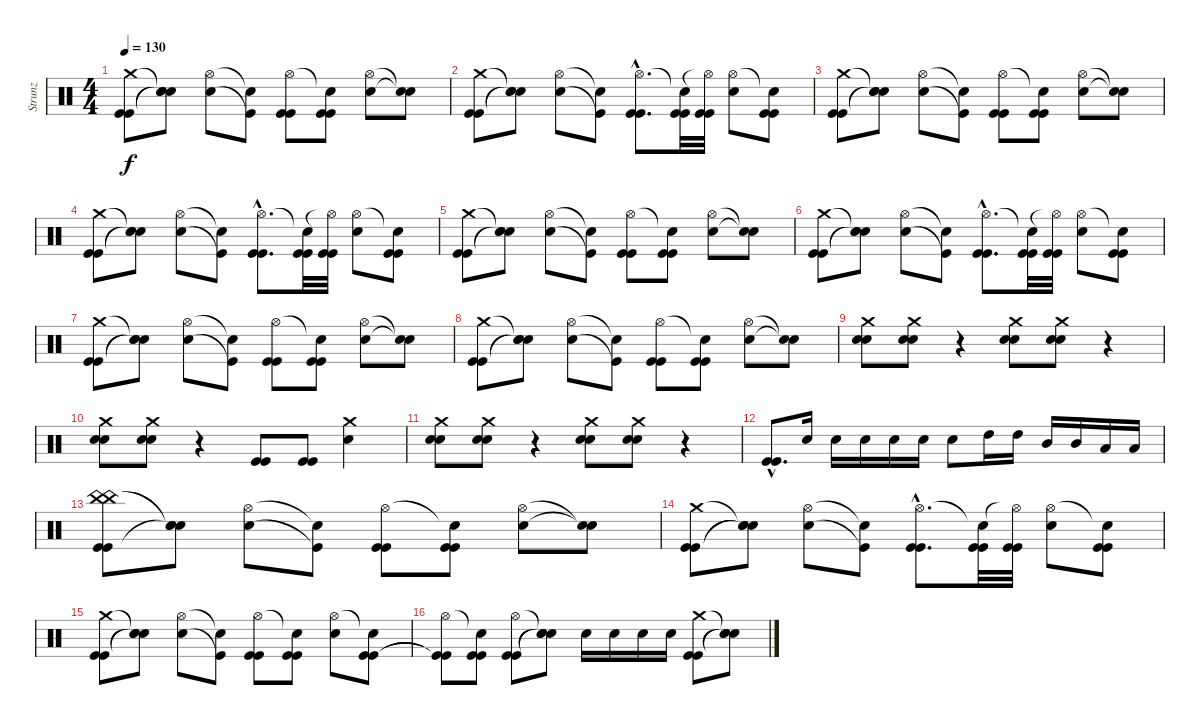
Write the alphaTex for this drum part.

\track ("Strunz" "Strunz") {instrument percussion}
\staff {score}
\articulation defaults
\ts (4 4)
\tempo 130
\clef neutral
\ks c
("Crash medium (hit)" "Kick (hit)" "Kick (hit)").8{dy f} ("Snare (hit)"{t} "Electric Snare (hit)"{t} "Snare (hit)"{t}).8 ("Hi-Hat (open)" "Electric Snare (hit)").8 ("Snare (hit)"{t} "Kick (hit)"{t}).8 ("Hi-Hat (open)" "Kick (hit)" "Kick (hit)").8 ("Snare (hit)"{t} "Kick (hit)" "Kick (hit)").8 ("Hi-Hat (open)" "Electric Snare (hit)").8 ("Snare (hit)"{t} "Snare (hit)"{t}).8 |
("Crash medium (hit)" "Kick (hit)" "Kick (hit)").8 ("Snare (hit)"{t} "Electric Snare (hit)"{t} "Snare (hit)"{t}).8 ("Hi-Hat (open)" "Electric Snare (hit)").8 ("Snare (hit)"{t} "Kick (hit)"{t}).8 ("Hi-Hat (open)"{hac} "Kick (hit)"{hac} "Kick (hit)"{hac}).8{d} ("Snare (hit)"{t} "Kick (hit)" "Kick (hit)").32 ("Hi-Hat (open)"{t} "Kick (hit)" "Kick (hit)").32 ("Hi-Hat (open)" "Electric Snare (hit)").8 ("Snare (hit)"{t} "Kick (hit)" "Kick (hit)").8 |
("Crash medium (hit)" "Kick (hit)" "Kick (hit)").8 ("Snare (hit)"{t} "Electric Snare (hit)"{t} "Snare (hit)"{t}).8 ("Hi-Hat (open)" "Electric Snare (hit)").8 ("Snare (hit)"{t} "Kick (hit)"{t}).8 ("Hi-Hat (open)" "Kick (hit)" "Kick (hit)").8 ("Snare (hit)"{t} "Kick (hit)" "Kick (hit)").8 ("Hi-Hat (open)" "Electric Snare (hit)").8 ("Snare (hit)"{t} "Snare (hit)"{t}).8 |
("Crash medium (hit)" "Kick (hit)" "Kick (hit)").8 ("Snare (hit)"{t} "Electric Snare (hit)"{t} "Snare (hit)"{t}).8 ("Hi-Hat (open)" "Electric Snare (hit)").8 ("Snare (hit)"{t} "Kick (hit)"{t}).8 ("Hi-Hat (open)"{hac} "Kick (hit)"{hac} "Kick (hit)"{hac}).8{d} ("Snare (hit)"{t} "Kick (hit)" "Kick (hit)").32 ("Hi-Hat (open)"{t} "Kick (hit)" "Kick (hit)").32 ("Hi-Hat (open)" "Electric Snare (hit)").8 ("Snare (hit)"{t} "Kick (hit)" "Kick (hit)").8 |
("Crash medium (hit)" "Kick (hit)" "Kick (hit)").8 ("Snare (hit)"{t} "Electric Snare (hit)"{t} "Snare (hit)"{t}).8 ("Hi-Hat (open)" "Electric Snare (hit)").8 ("Snare (hit)"{t} "Kick (hit)"{t}).8 ("Hi-Hat (open)" "Kick (hit)" "Kick (hit)").8 ("Snare (hit)"{t} "Kick (hit)" "Kick (hit)").8 ("Hi-Hat (open)" "Electric Snare (hit)").8 ("Snare (hit)"{t} "Snare (hit)"{t}).8 |
("Crash medium (hit)" "Kick (hit)" "Kick (hit)").8 ("Snare (hit)"{t} "Electric Snare (hit)"{t} "Snare (hit)"{t}).8 ("Hi-Hat (open)" "Electric Snare (hit)").8 ("Snare (hit)"{t} "Kick (hit)"{t}).8 ("Hi-Hat (open)"{hac} "Kick (hit)"{hac} "Kick (hit)"{hac}).8{d} ("Snare (hit)"{t} "Kick (hit)" "Kick (hit)").32 ("Hi-Hat (open)"{t} "Kick (hit)" "Kick (hit)").32 ("Hi-Hat (open)" "Electric Snare (hit)").8 ("Snare (hit)"{t} "Kick (hit)" "Kick (hit)").8 |
("Crash medium (hit)" "Kick (hit)" "Kick (hit)").8 ("Snare (hit)"{t} "Electric Snare (hit)"{t} "Snare (hit)"{t}).8 ("Hi-Hat (open)" "Electric Snare (hit)").8 ("Snare (hit)"{t} "Kick (hit)"{t}).8 ("Hi-Hat (open)" "Kick (hit)" "Kick (hit)").8 ("Snare (hit)"{t} "Kick (hit)" "Kick (hit)").8 ("Hi-Hat (open)" "Electric Snare (hit)").8 ("Snare (hit)"{t} "Snare (hit)"{t}).8 |
("Crash medium (hit)" "Kick (hit)" "Kick (hit)").8 ("Snare (hit)"{t} "Electric Snare (hit)"{t} "Snare (hit)"{t}).8 ("Hi-Hat (open)" "Electric Snare (hit)").8 ("Snare (hit)"{t} "Kick (hit)"{t}).8 ("Hi-Hat (open)" "Kick (hit)" "Kick (hit)").8 ("Snare (hit)"{t} "Kick (hit)" "Kick (hit)").8 ("Hi-Hat (open)" "Electric Snare (hit)").8 ("Snare (hit)"{t} "Snare (hit)"{t}).8 |
("Crash medium (hit)" "Electric Snare (hit)" "Electric Snare (hit)").8 ("Crash medium (hit)" "Electric Snare (hit)" "Electric Snare (hit)").8 r.4 ("Crash medium (hit)" "Electric Snare (hit)" "Electric Snare (hit)").8 ("Crash medium (hit)" "Electric Snare (hit)" "Electric Snare (hit)").8 r.4 |
("Crash medium (hit)" "Electric Snare (hit)" "Electric Snare (hit)").8 ("Crash medium (hit)" "Electric Snare (hit)" "Electric Snare (hit)").8 r.4 ("Kick (hit)" "Kick (hit)").8 ("Kick (hit)" "Kick (hit)").8 ("Crash medium (hit)" "Electric Snare (hit)").4 |
("Crash medium (hit)" "Electric Snare (hit)" "Electric Snare (hit)").8 ("Crash medium (hit)" "Electric Snare (hit)" "Electric Snare (hit)").8 r.4 ("Crash medium (hit)" "Electric Snare (hit)" "Electric Snare (hit)").8 ("Crash medium (hit)" "Electric Snare (hit)" "Electric Snare (hit)").8 r.4 |
("Kick (hit)"{hac} "Kick (hit)"{hac}).8{d} "Electric Snare (hit)".16 "Electric Snare (hit)".16 "Electric Snare (hit)".16 "Electric Snare (hit)".16 "Electric Snare (hit)".16 "Electric Snare (hit)".8 "High Tom (hit)".16 "High Tom (hit)".16 "Mid Tom (hit)".16 "Mid Tom (hit)".16 "Low Tom (hit)".16 "Low Tom (hit)".16 |
("China (hit)" "China (hit)" "Kick (hit)" "Kick (hit)").8 ("Snare (hit)"{t} "Electric Snare (hit)"{t} "Snare (hit)"{t}).8 ("Hi-Hat (open)" "Electric Snare (hit)").8 ("Snare (hit)"{t} "Kick (hit)"{t}).8 ("Hi-Hat (open)" "Kick (hit)" "Kick (hit)").8 ("Snare (hit)"{t} "Kick (hit)" "Kick (hit)").8 ("Hi-Hat (open)" "Electric Snare (hit)").8 ("Snare (hit)"{t} "Snare (hit)"{t}).8 |
("Crash medium (hit)" "Kick (hit)" "Kick (hit)").8 ("Snare (hit)"{t} "Electric Snare (hit)"{t} "Snare (hit)"{t}).8 ("Hi-Hat (open)" "Electric Snare (hit)").8 ("Snare (hit)"{t} "Kick (hit)"{t}).8 ("Hi-Hat (open)"{hac} "Kick (hit)"{hac} "Kick (hit)"{hac}).8{d} ("Snare (hit)"{t} "Kick (hit)" "Kick (hit)").32 ("Hi-Hat (open)"{t} "Kick (hit)" "Kick (hit)").32 ("Hi-Hat (open)" "Electric Snare (hit)").8 ("Snare (hit)"{t} "Kick (hit)" "Kick (hit)").8 |
("Crash medium (hit)" "Kick (hit)" "Kick (hit)").8 ("Snare (hit)"{t} "Electric Snare (hit)"{t} "Snare (hit)"{t}).8 ("Hi-Hat (open)" "Electric Snare (hit)").8 ("Snare (hit)"{t} "Kick (hit)"{t}).8 ("Hi-Hat (open)" "Kick (hit)" "Kick (hit)").8 ("Snare (hit)"{t} "Kick (hit)" "Kick (hit)").8 ("Hi-Hat (open)" "Electric Snare (hit)").8 ("Snare (hit)"{t} "Kick (hit)" "Kick (hit)").8 |
("Hi-Hat (open)" "Kick (hit)"{t} "Kick (hit)"{t}).8 ("Snare (hit)"{t} "Kick (hit)" "Kick (hit)").8 ("Hi-Hat (open)" "Kick (hit)" "Kick (hit)").8 ("Snare (hit)"{t} "Snare (hit)"{t} "Snare (hit)"{t}).8 "Electric Snare (hit)".16 "Electric Snare (hit)".16 "Electric Snare (hit)".16 "Electric Snare (hit)".16 ("Crash medium (hit)" "Kick (hit)" "Kick (hit)").8 ("Snare (hit)"{t} "Snare (hit)"{t} "Snare (hit)"{t}).8
